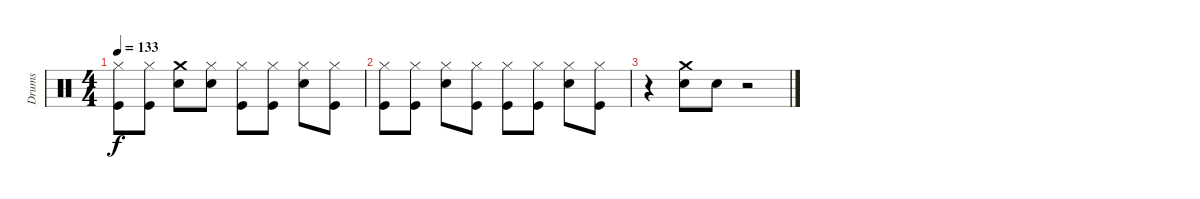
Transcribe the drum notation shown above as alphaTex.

\track ("Drums" "Drums") {instrument percussion}
\staff {score}
\articulation defaults
\ts (4 4)
\tempo 133
\clef neutral
\ks c
("Hi-Hat (closed)" "Kick (hit)").8{dy f} ("Hi-Hat (closed)" "Kick (hit)").8 ("Crash medium (hit)" "Snare (hit) 2").8 ("Hi-Hat (closed)" "Snare (hit) 2").8 ("Hi-Hat (closed)" "Kick (hit)").8 ("Hi-Hat (closed)" "Kick (hit)").8 ("Hi-Hat (closed)" "Snare (hit) 2").8 ("Hi-Hat (closed)" "Kick (hit)").8 |
("Hi-Hat (closed)" "Kick (hit)").8 ("Hi-Hat (closed)" "Kick (hit)").8 ("Hi-Hat (closed)" "Snare (hit) 2").8 ("Hi-Hat (closed)" "Kick (hit)").8 ("Hi-Hat (closed)" "Kick (hit)").8 ("Hi-Hat (closed)" "Kick (hit)").8 ("Hi-Hat (closed)" "Snare (hit) 2").8 ("Hi-Hat (closed)" "Kick (hit)").8 |
r.4 ("Crash medium (hit)" "Snare (hit) 2").8 "Snare (hit) 2".8 r.2
